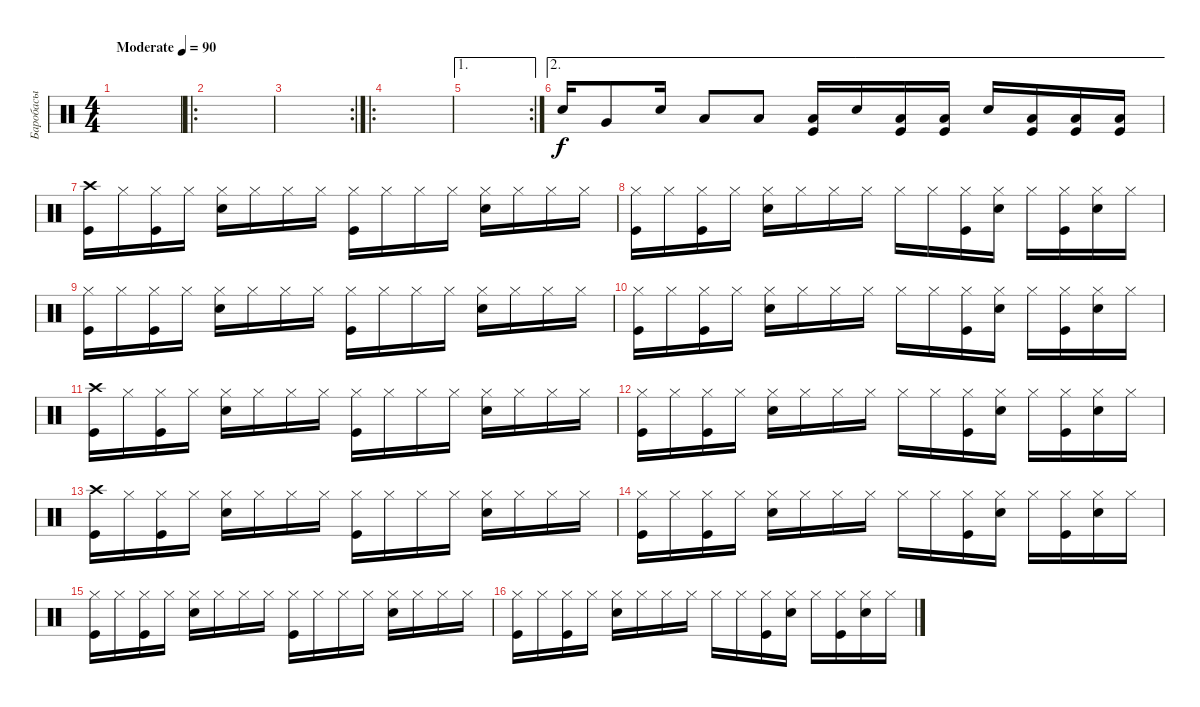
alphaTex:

\track ("Баробасы" "Баробасы") {instrument percussion}
\staff {score}
\articulation defaults
\ts (4 4)
\tempo (90 "Moderate")
\clef neutral
\ks c
|
\ro
|
\rc 2
|
\ro
|
\ae 1
\rc 2
|
\ae 2 "Snare (hit) 2".16 "Very Low Tom (hit)".8 "Snare (hit) 2".16 "Low Floor Tom (hit)".8 "Low Floor Tom (hit)".8
("Kick (hit)" "Low Floor Tom (hit)").16 "Snare (hit) 2".16 ("Kick (hit)" "Low Floor Tom (hit)").16 ("Kick (hit)" "Low Floor Tom (hit)").16 "Snare (hit) 2".16 ("Kick (hit)" "Low Floor Tom (hit)").16 ("Kick (hit)" "Low Floor Tom (hit)").16 ("Kick (hit)" "Low Floor Tom (hit)").16 |
("Crash high (hit)" "Kick (hit)").16 "Hi-Hat (closed)".16 ("Hi-Hat (closed)" "Kick (hit)").16 "Hi-Hat (closed)".16 ("Hi-Hat (closed)" "Snare (hit) 2").16 "Hi-Hat (closed)".16 "Hi-Hat (closed)".16 "Hi-Hat (closed)".16 ("Hi-Hat (closed)" "Kick (hit)").16 "Hi-Hat (closed)".16 "Hi-Hat (closed)".16 "Hi-Hat (closed)".16 ("Hi-Hat (closed)" "Snare (hit) 2").16 "Hi-Hat (closed)".16 "Hi-Hat (closed)".16 "Hi-Hat (closed)".16 |
("Hi-Hat (closed)" "Kick (hit)").16 "Hi-Hat (closed)".16 ("Hi-Hat (closed)" "Kick (hit)").16 "Hi-Hat (closed)".16 ("Hi-Hat (closed)" "Snare (hit) 2").16 "Hi-Hat (closed)".16 "Hi-Hat (closed)".16 "Hi-Hat (closed)".16 "Hi-Hat (closed)".16 "Hi-Hat (closed)".16 ("Hi-Hat (closed)" "Kick (hit)").16 ("Hi-Hat (closed)" "Snare (hit) 2").16 "Hi-Hat (closed)".16 ("Hi-Hat (closed)" "Kick (hit)").16 ("Hi-Hat (closed)" "Snare (hit) 2").16 "Hi-Hat (closed)".16 |
("Hi-Hat (closed)" "Kick (hit)").16 "Hi-Hat (closed)".16 ("Hi-Hat (closed)" "Kick (hit)").16 "Hi-Hat (closed)".16 ("Hi-Hat (closed)" "Snare (hit) 2").16 "Hi-Hat (closed)".16 "Hi-Hat (closed)".16 "Hi-Hat (closed)".16 ("Hi-Hat (closed)" "Kick (hit)").16 "Hi-Hat (closed)".16 "Hi-Hat (closed)".16 "Hi-Hat (closed)".16 ("Hi-Hat (closed)" "Snare (hit) 2").16 "Hi-Hat (closed)".16 "Hi-Hat (closed)".16 "Hi-Hat (closed)".16 |
("Hi-Hat (closed)" "Kick (hit)").16 "Hi-Hat (closed)".16 ("Hi-Hat (closed)" "Kick (hit)").16 "Hi-Hat (closed)".16 ("Hi-Hat (closed)" "Snare (hit) 2").16 "Hi-Hat (closed)".16 "Hi-Hat (closed)".16 "Hi-Hat (closed)".16 "Hi-Hat (closed)".16 "Hi-Hat (closed)".16 ("Hi-Hat (closed)" "Kick (hit)").16 ("Hi-Hat (closed)" "Snare (hit) 2").16 "Hi-Hat (closed)".16 ("Hi-Hat (closed)" "Kick (hit)").16 ("Hi-Hat (closed)" "Snare (hit) 2").16 "Hi-Hat (closed)".16 |
("Crash high (hit)" "Kick (hit)").16 "Hi-Hat (closed)".16 ("Hi-Hat (closed)" "Kick (hit)").16 "Hi-Hat (closed)".16 ("Hi-Hat (closed)" "Snare (hit) 2").16 "Hi-Hat (closed)".16 "Hi-Hat (closed)".16 "Hi-Hat (closed)".16 ("Hi-Hat (closed)" "Kick (hit)").16 "Hi-Hat (closed)".16 "Hi-Hat (closed)".16 "Hi-Hat (closed)".16 ("Hi-Hat (closed)" "Snare (hit) 2").16 "Hi-Hat (closed)".16 "Hi-Hat (closed)".16 "Hi-Hat (closed)".16 |
("Hi-Hat (closed)" "Kick (hit)").16 "Hi-Hat (closed)".16 ("Hi-Hat (closed)" "Kick (hit)").16 "Hi-Hat (closed)".16 ("Hi-Hat (closed)" "Snare (hit) 2").16 "Hi-Hat (closed)".16 "Hi-Hat (closed)".16 "Hi-Hat (closed)".16 "Hi-Hat (closed)".16 "Hi-Hat (closed)".16 ("Hi-Hat (closed)" "Kick (hit)").16 ("Hi-Hat (closed)" "Snare (hit) 2").16 "Hi-Hat (closed)".16 ("Hi-Hat (closed)" "Kick (hit)").16 ("Hi-Hat (closed)" "Snare (hit) 2").16 "Hi-Hat (closed)".16 |
("Crash high (hit)" "Kick (hit)").16 "Hi-Hat (closed)".16 ("Hi-Hat (closed)" "Kick (hit)").16 "Hi-Hat (closed)".16 ("Hi-Hat (closed)" "Snare (hit) 2").16 "Hi-Hat (closed)".16 "Hi-Hat (closed)".16 "Hi-Hat (closed)".16 ("Hi-Hat (closed)" "Kick (hit)").16 "Hi-Hat (closed)".16 "Hi-Hat (closed)".16 "Hi-Hat (closed)".16 ("Hi-Hat (closed)" "Snare (hit) 2").16 "Hi-Hat (closed)".16 "Hi-Hat (closed)".16 "Hi-Hat (closed)".16 |
("Hi-Hat (closed)" "Kick (hit)").16 "Hi-Hat (closed)".16 ("Hi-Hat (closed)" "Kick (hit)").16 "Hi-Hat (closed)".16 ("Hi-Hat (closed)" "Snare (hit) 2").16 "Hi-Hat (closed)".16 "Hi-Hat (closed)".16 "Hi-Hat (closed)".16 "Hi-Hat (closed)".16 "Hi-Hat (closed)".16 ("Hi-Hat (closed)" "Kick (hit)").16 ("Hi-Hat (closed)" "Snare (hit) 2").16 "Hi-Hat (closed)".16 ("Hi-Hat (closed)" "Kick (hit)").16 ("Hi-Hat (closed)" "Snare (hit) 2").16 "Hi-Hat (closed)".16 |
("Hi-Hat (closed)" "Kick (hit)").16 "Hi-Hat (closed)".16 ("Hi-Hat (closed)" "Kick (hit)").16 "Hi-Hat (closed)".16 ("Hi-Hat (closed)" "Snare (hit) 2").16 "Hi-Hat (closed)".16 "Hi-Hat (closed)".16 "Hi-Hat (closed)".16 ("Hi-Hat (closed)" "Kick (hit)").16 "Hi-Hat (closed)".16 "Hi-Hat (closed)".16 "Hi-Hat (closed)".16 ("Hi-Hat (closed)" "Snare (hit) 2").16 "Hi-Hat (closed)".16 "Hi-Hat (closed)".16 "Hi-Hat (closed)".16 |
("Hi-Hat (closed)" "Kick (hit)").16 "Hi-Hat (closed)".16 ("Hi-Hat (closed)" "Kick (hit)").16 "Hi-Hat (closed)".16 ("Hi-Hat (closed)" "Snare (hit) 2").16 "Hi-Hat (closed)".16 "Hi-Hat (closed)".16 "Hi-Hat (closed)".16 "Hi-Hat (closed)".16 "Hi-Hat (closed)".16 ("Hi-Hat (closed)" "Kick (hit)").16 ("Hi-Hat (closed)" "Snare (hit) 2").16 "Hi-Hat (closed)".16 ("Hi-Hat (closed)" "Kick (hit)").16 ("Hi-Hat (closed)" "Snare (hit) 2").16 "Hi-Hat (closed)".16
